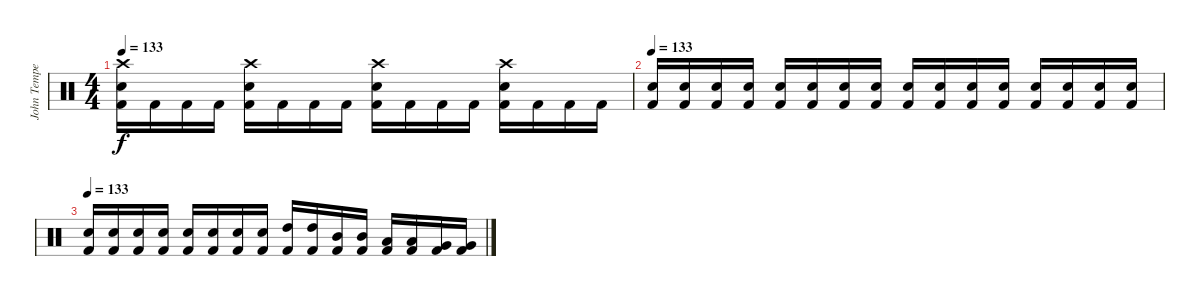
\track ("John Tempesta" "John Tempe") {instrument percussion}
\staff {score}
\articulation defaults
\ts (4 4)
\tempo 133
\clef neutral
\ks c
("Crash high (hit)" "Electric Snare (hit)" "Kick (hit) 2").16{dy f} "Kick (hit) 2".16 "Kick (hit) 2".16 "Kick (hit) 2".16 ("Crash high (hit)" "Electric Snare (hit)" "Kick (hit) 2").16 "Kick (hit) 2".16 "Kick (hit) 2".16 "Kick (hit) 2".16 ("Crash high (hit)" "Electric Snare (hit)" "Kick (hit) 2").16 "Kick (hit) 2".16 "Kick (hit) 2".16 "Kick (hit) 2".16 ("Crash high (hit)" "Electric Snare (hit)" "Kick (hit) 2").16 "Kick (hit) 2".16 "Kick (hit) 2".16 "Kick (hit) 2".16 |
\tempo 133
("Electric Snare (hit)" "Kick (hit) 2").16 ("Electric Snare (hit)" "Kick (hit) 2").16 ("Electric Snare (hit)" "Kick (hit) 2").16 ("Electric Snare (hit)" "Kick (hit) 2").16 ("Electric Snare (hit)" "Kick (hit) 2").16 ("Electric Snare (hit)" "Kick (hit) 2").16 ("Electric Snare (hit)" "Kick (hit) 2").16 ("Electric Snare (hit)" "Kick (hit) 2").16 ("Electric Snare (hit)" "Kick (hit) 2").16 ("Electric Snare (hit)" "Kick (hit) 2").16 ("Electric Snare (hit)" "Kick (hit) 2").16 ("Electric Snare (hit)" "Kick (hit) 2").16 ("Electric Snare (hit)" "Kick (hit) 2").16 ("Electric Snare (hit)" "Kick (hit) 2").16 ("Electric Snare (hit)" "Kick (hit) 2").16 ("Electric Snare (hit)" "Kick (hit) 2").16 |
\tempo 133
("Electric Snare (hit)" "Kick (hit) 2").16 ("Electric Snare (hit)" "Kick (hit) 2").16 ("Electric Snare (hit)" "Kick (hit) 2").16 ("Electric Snare (hit)" "Kick (hit) 2").16 ("Electric Snare (hit)" "Kick (hit) 2").16 ("Electric Snare (hit)" "Kick (hit) 2").16 ("Electric Snare (hit)" "Kick (hit) 2").16 ("Electric Snare (hit)" "Kick (hit) 2").16 ("High Tom (hit)" "Kick (hit) 2").16 ("High Tom (hit)" "Kick (hit) 2").16 ("Mid Tom (hit)" "Kick (hit) 2").16 ("Mid Tom (hit)" "Kick (hit) 2").16 ("Low Tom (hit)" "Kick (hit) 2").16 ("Low Tom (hit)" "Kick (hit) 2").16 ("Very Low Tom (hit)" "Kick (hit) 2").16 ("Very Low Tom (hit)" "Kick (hit) 2").16
